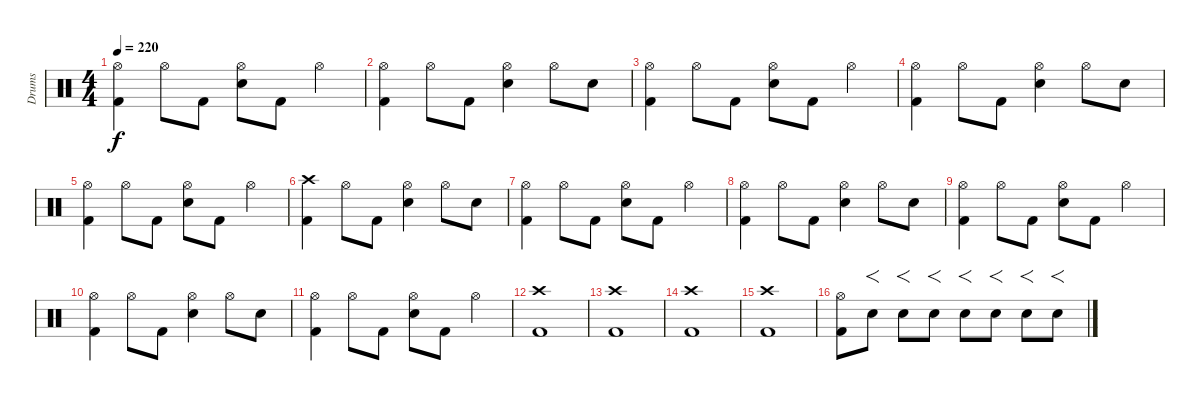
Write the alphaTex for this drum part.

\track ("Drums" "Drums") {instrument percussion}
\staff {score}
\articulation defaults
\ts (4 4)
\tempo 220
\clef neutral
\ks c
("Hi-Hat (open)" "Kick (hit) 2").4{dy f} "Hi-Hat (open)".8 "Kick (hit) 2".8 ("Hi-Hat (open)" "Snare (hit) 2").8 "Kick (hit) 2".8 "Hi-Hat (open)".4 |
("Hi-Hat (open)" "Kick (hit) 2").4 "Hi-Hat (open)".8 "Kick (hit) 2".8 ("Hi-Hat (open)" "Snare (hit) 2").4 "Hi-Hat (open)".8 "Snare (hit) 2".8 |
("Hi-Hat (open)" "Kick (hit) 2").4 "Hi-Hat (open)".8 "Kick (hit) 2".8 ("Hi-Hat (open)" "Snare (hit) 2").8 "Kick (hit) 2".8 "Hi-Hat (open)".4 |
("Hi-Hat (open)" "Kick (hit) 2").4 "Hi-Hat (open)".8 "Kick (hit) 2".8 ("Hi-Hat (open)" "Snare (hit) 2").4 "Hi-Hat (open)".8 "Snare (hit) 2".8 |
("Hi-Hat (open)" "Kick (hit) 2").4 "Hi-Hat (open)".8 "Kick (hit) 2".8 ("Hi-Hat (open)" "Snare (hit) 2").8 "Kick (hit) 2".8 "Hi-Hat (open)".4 |
("Crash high (hit)" "Kick (hit) 2").4 "Hi-Hat (open)".8 "Kick (hit) 2".8 ("Hi-Hat (open)" "Snare (hit) 2").4 "Hi-Hat (open)".8 "Snare (hit) 2".8 |
("Hi-Hat (open)" "Kick (hit) 2").4 "Hi-Hat (open)".8 "Kick (hit) 2".8 ("Hi-Hat (open)" "Snare (hit) 2").8 "Kick (hit) 2".8 "Hi-Hat (open)".4 |
("Hi-Hat (open)" "Kick (hit) 2").4 "Hi-Hat (open)".8 "Kick (hit) 2".8 ("Hi-Hat (open)" "Snare (hit) 2").4 "Hi-Hat (open)".8 "Snare (hit) 2".8 |
("Hi-Hat (open)" "Kick (hit) 2").4 "Hi-Hat (open)".8 "Kick (hit) 2".8 ("Hi-Hat (open)" "Snare (hit) 2").8 "Kick (hit) 2".8 "Hi-Hat (open)".4 |
("Hi-Hat (open)" "Kick (hit) 2").4 "Hi-Hat (open)".8 "Kick (hit) 2".8 ("Hi-Hat (open)" "Snare (hit) 2").4 "Hi-Hat (open)".8 "Snare (hit) 2".8 |
("Hi-Hat (open)" "Kick (hit) 2").4 "Hi-Hat (open)".8 "Kick (hit) 2".8 ("Hi-Hat (open)" "Snare (hit) 2").8 "Kick (hit) 2".8 "Hi-Hat (open)".4 |
("Crash high (hit)" "Kick (hit) 2").1 |
("Crash high (hit)" "Kick (hit) 2").1 |
("Crash high (hit)" "Kick (hit) 2").1 |
("Crash high (hit)" "Kick (hit) 2").1 |
("Hi-Hat (open)" "Kick (hit) 2").8 "Snare (hit) 2".8{f} "Snare (hit) 2".8{f} "Snare (hit) 2".8{f} "Snare (hit) 2".8{f} "Snare (hit) 2".8{f} "Snare (hit) 2".8{f} "Snare (hit) 2".8{f}
